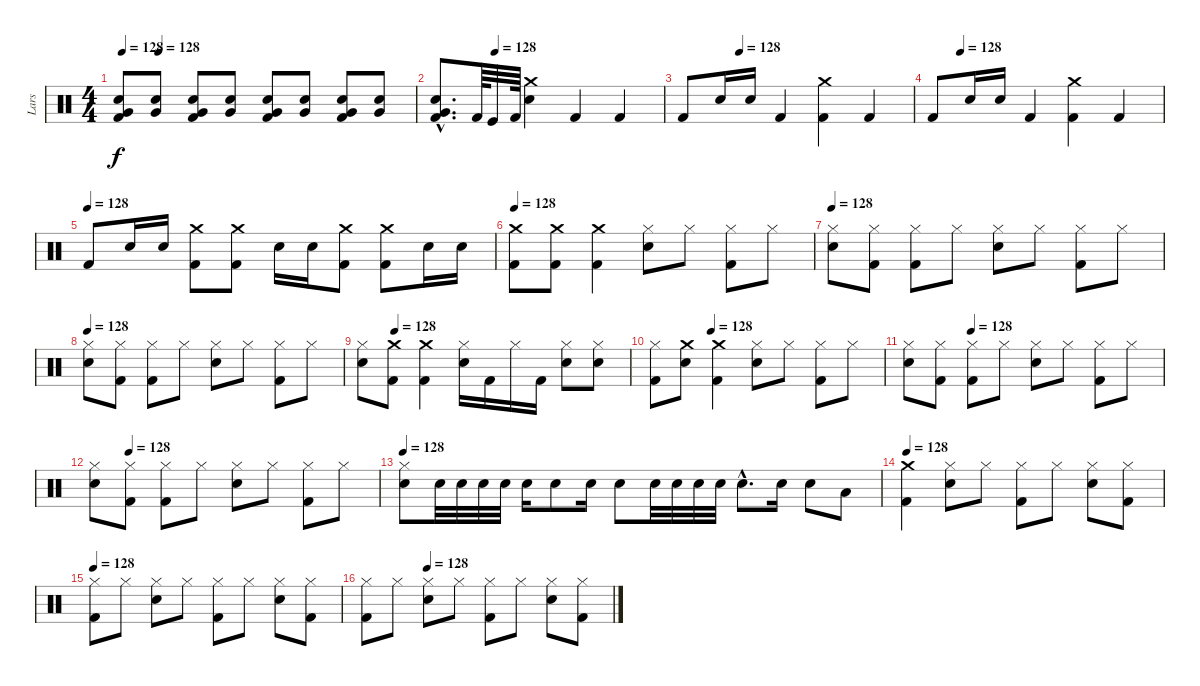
\track ("Lars" "Lars") {instrument percussion}
\staff {score}
\articulation defaults
\ts (4 4)
\tempo 128
\tempo (128 0.125)
\clef neutral
\ks c
("Snare (hit) 2" "Very Low Tom (hit)" "Kick (hit) 2").8{dy f} ("Snare (hit) 2" "Very Low Tom (hit)").8 ("Snare (hit) 2" "Very Low Tom (hit)" "Kick (hit) 2").8 ("Snare (hit) 2" "Very Low Tom (hit)").8 ("Snare (hit) 2" "Very Low Tom (hit)" "Kick (hit) 2").8 ("Snare (hit) 2" "Very Low Tom (hit)").8 ("Snare (hit) 2" "Very Low Tom (hit)" "Kick (hit) 2").8 ("Snare (hit) 2" "Very Low Tom (hit)").8 |
\tempo (128 0.25)
("Kick (hit) 2"{hac} "Snare (hit) 2"{hac} "Very Low Tom (hit)"{hac}).8{d} "Kick (hit) 2".64 "Kick (hit)".32 "Kick (hit) 2".64 ("Crash medium (hit)" "Snare (hit) 2").4 "Kick (hit) 2".4 "Kick (hit) 2".4 |
\tempo (128 0.25)
"Kick (hit) 2".8 "Snare (hit) 2".16 "Snare (hit) 2".16 "Kick (hit) 2".4 ("Crash medium (hit)" "Kick (hit) 2").4 "Kick (hit) 2".4 |
\tempo (128 0.125)
"Kick (hit) 2".8 "Snare (hit) 2".16 "Snare (hit) 2".16 "Kick (hit) 2".4 ("Crash medium (hit)" "Kick (hit) 2").4 "Kick (hit) 2".4 |
\tempo (128)
"Kick (hit) 2".8 "Snare (hit) 2".16 "Snare (hit) 2".16 ("Kick (hit) 2" "Crash medium (hit)").8 ("Kick (hit) 2" "Crash medium (hit)").8 "Snare (hit) 2".16 "Snare (hit) 2".16 ("Kick (hit) 2" "Crash medium (hit)").8 ("Crash medium (hit)" "Kick (hit) 2").8 "Snare (hit) 2".16 "Snare (hit) 2".16 |
\tempo 128
("Kick (hit) 2" "Crash medium (hit)").8 ("Kick (hit) 2" "Crash medium (hit)").8 ("Kick (hit) 2" "Crash medium (hit)").4 ("Hi-Hat (closed)" "Snare (hit) 2").8 "Hi-Hat (closed)".8 ("Kick (hit) 2" "Hi-Hat (closed)").8 "Hi-Hat (closed)".8 |
\tempo 128
("Hi-Hat (closed)" "Snare (hit) 2").8 ("Kick (hit) 2" "Hi-Hat (closed)").8 ("Hi-Hat (closed)" "Kick (hit) 2").8 "Hi-Hat (closed)".8 ("Hi-Hat (closed)" "Snare (hit) 2").8 "Hi-Hat (closed)".8 ("Hi-Hat (closed)" "Kick (hit) 2").8 "Hi-Hat (closed)".8 |
\tempo 128
("Hi-Hat (closed)" "Snare (hit) 2").8 ("Kick (hit) 2" "Hi-Hat (closed)").8 ("Hi-Hat (closed)" "Kick (hit) 2").8 "Hi-Hat (closed)".8 ("Hi-Hat (closed)" "Snare (hit) 2").8 "Hi-Hat (closed)".8 ("Hi-Hat (closed)" "Kick (hit) 2").8 "Hi-Hat (closed)".8 |
\tempo (128 0.125)
("Hi-Hat (closed)" "Snare (hit) 2").8 ("Kick (hit) 2" "Crash medium (hit)").8 ("Kick (hit) 2" "Crash medium (hit)").4 ("Hi-Hat (closed)" "Snare (hit) 2").16 "Kick (hit) 2".16 "Hi-Hat (closed)".16 "Kick (hit) 2".16 ("Snare (hit) 2" "Hi-Hat (closed)").8 ("Snare (hit) 2" "Hi-Hat (closed)").8 |
\tempo (128 0.25)
("Kick (hit) 2" "Hi-Hat (closed)").8 ("Crash medium (hit)" "Snare (hit) 2").8 ("Kick (hit) 2" "Crash medium (hit)").4 ("Hi-Hat (closed)" "Snare (hit) 2").8 "Hi-Hat (closed)".8 ("Kick (hit) 2" "Hi-Hat (closed)").8 "Hi-Hat (closed)".8 |
\tempo (128 0.25)
("Hi-Hat (closed)" "Snare (hit) 2").8 ("Kick (hit) 2" "Hi-Hat (closed)").8 ("Hi-Hat (closed)" "Kick (hit) 2").8 "Hi-Hat (closed)".8 ("Hi-Hat (closed)" "Snare (hit) 2").8 "Hi-Hat (closed)".8 ("Hi-Hat (closed)" "Kick (hit) 2").8 "Hi-Hat (closed)".8 |
\tempo (128 0.125)
("Hi-Hat (closed)" "Snare (hit) 2").8 ("Kick (hit) 2" "Hi-Hat (closed)").8 ("Hi-Hat (closed)" "Kick (hit) 2").8 "Hi-Hat (closed)".8 ("Hi-Hat (closed)" "Snare (hit) 2").8 "Hi-Hat (closed)".8 ("Hi-Hat (closed)" "Kick (hit) 2").8 "Hi-Hat (closed)".8 |
\tempo 128
("Snare (hit) 2" "Hi-Hat (closed)").8 "Snare (hit) 2".32 "Snare (hit) 2".32 "Snare (hit) 2".32 "Snare (hit) 2".32 "Snare (hit) 2".16 "Snare (hit) 2".8 "Snare (hit) 2".16 "Snare (hit) 2".8 "Snare (hit) 2".32 "Snare (hit) 2".32 "Snare (hit) 2".32 "Snare (hit) 2".32 "Snare (hit) 2"{hac}.8{d} "Snare (hit) 2".16 "Snare (hit) 2".8 "Low Tom (hit)".8 |
\tempo 128
("Kick (hit) 2" "Crash medium (hit)").4 ("Snare (hit) 2" "Hi-Hat (closed)").8 "Hi-Hat (closed)".8 ("Hi-Hat (closed)" "Kick (hit) 2").8 "Hi-Hat (closed)".8 ("Snare (hit) 2" "Hi-Hat (closed)").8 ("Kick (hit) 2" "Hi-Hat (closed)").8 |
\tempo 128
("Hi-Hat (closed)" "Kick (hit) 2").8 "Hi-Hat (closed)".8 ("Snare (hit) 2" "Hi-Hat (closed)").8 "Hi-Hat (closed)".8 ("Hi-Hat (closed)" "Kick (hit) 2").8 "Hi-Hat (closed)".8 ("Snare (hit) 2" "Hi-Hat (closed)").8 ("Kick (hit) 2" "Hi-Hat (closed)").8 |
\tempo (128 0.25)
("Hi-Hat (closed)" "Kick (hit) 2").8 "Hi-Hat (closed)".8 ("Snare (hit) 2" "Hi-Hat (closed)").8 "Hi-Hat (closed)".8 ("Hi-Hat (closed)" "Kick (hit) 2").8 "Hi-Hat (closed)".8 ("Snare (hit) 2" "Hi-Hat (closed)").8 ("Kick (hit) 2" "Hi-Hat (closed)").8
